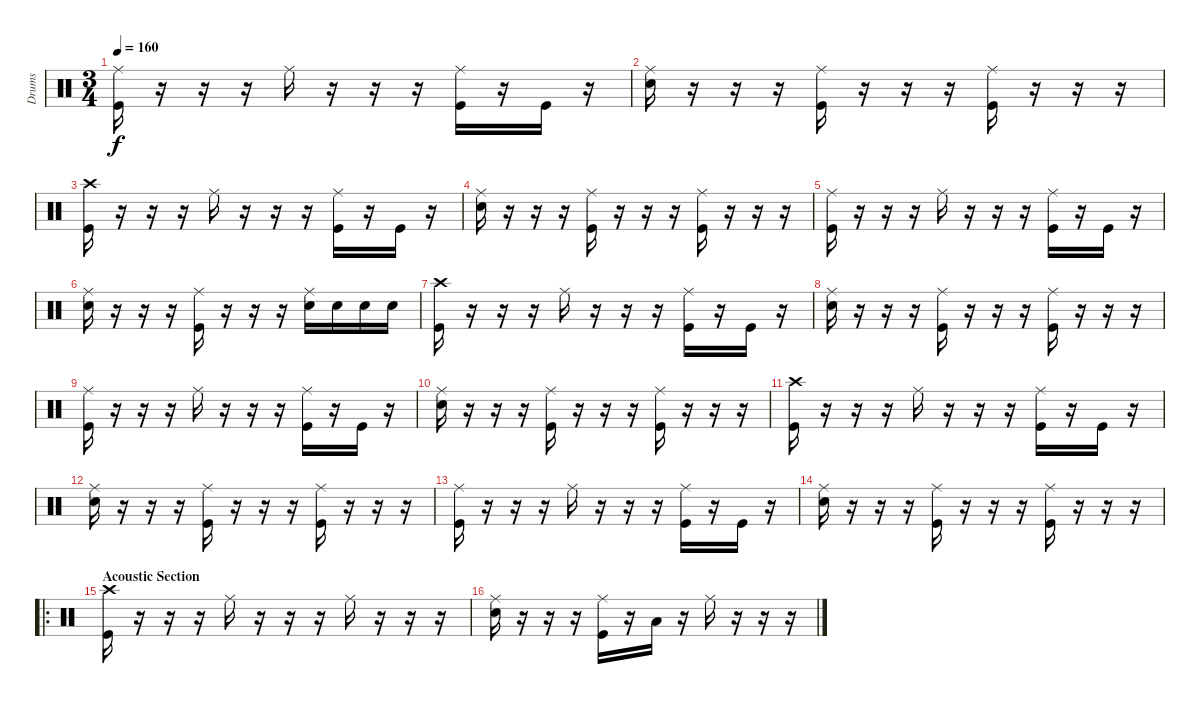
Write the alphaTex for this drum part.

\track ("Drums" "Drums") {instrument percussion}
\staff {score}
\articulation defaults
\ts (3 4)
\tempo 160
\clef neutral
\ks c
("Ride (middle)" "Kick (hit)").16{dy f} r.16 r.16 r.16 "Ride (middle)".16 r.16 r.16 r.16 ("Ride (middle)" "Kick (hit)").16 r.16 "Kick (hit)".16 r.16 |
("Ride (middle)" "Snare (hit) 2").16 r.16 r.16 r.16 ("Ride (middle)" "Kick (hit)").16 r.16 r.16 r.16 ("Ride (middle)" "Kick (hit)").16 r.16 r.16 r.16 |
("Crash high (hit)" "Kick (hit)").16 r.16 r.16 r.16 "Ride (middle)".16 r.16 r.16 r.16 ("Ride (middle)" "Kick (hit)").16 r.16 "Kick (hit)".16 r.16 |
("Ride (middle)" "Snare (hit) 2").16 r.16 r.16 r.16 ("Ride (middle)" "Kick (hit)").16 r.16 r.16 r.16 ("Ride (middle)" "Kick (hit)").16 r.16 r.16 r.16 |
("Ride (middle)" "Kick (hit)").16 r.16 r.16 r.16 "Ride (middle)".16 r.16 r.16 r.16 ("Ride (middle)" "Kick (hit)").16 r.16 "Kick (hit)".16 r.16 |
("Ride (middle)" "Snare (hit) 2").16 r.16 r.16 r.16 ("Ride (middle)" "Kick (hit)").16 r.16 r.16 r.16 ("Ride (middle)" "Snare (hit) 2").16 "Snare (hit) 2".16 "Snare (hit) 2".16 "Snare (hit) 2".16 |
("Crash high (hit)" "Kick (hit)").16 r.16 r.16 r.16 "Ride (middle)".16 r.16 r.16 r.16 ("Ride (middle)" "Kick (hit)").16 r.16 "Kick (hit)".16 r.16 |
("Ride (middle)" "Snare (hit) 2").16 r.16 r.16 r.16 ("Ride (middle)" "Kick (hit)").16 r.16 r.16 r.16 ("Ride (middle)" "Kick (hit)").16 r.16 r.16 r.16 |
("Ride (middle)" "Kick (hit)").16 r.16 r.16 r.16 "Ride (middle)".16 r.16 r.16 r.16 ("Ride (middle)" "Kick (hit)").16 r.16 "Kick (hit)".16 r.16 |
("Ride (middle)" "Snare (hit) 2").16 r.16 r.16 r.16 ("Ride (middle)" "Kick (hit)").16 r.16 r.16 r.16 ("Ride (middle)" "Kick (hit)").16 r.16 r.16 r.16 |
("Crash high (hit)" "Kick (hit)").16 r.16 r.16 r.16 "Ride (middle)".16 r.16 r.16 r.16 ("Ride (middle)" "Kick (hit)").16 r.16 "Kick (hit)".16 r.16 |
("Ride (middle)" "Snare (hit) 2").16 r.16 r.16 r.16 ("Ride (middle)" "Kick (hit)").16 r.16 r.16 r.16 ("Ride (middle)" "Kick (hit)").16 r.16 r.16 r.16 |
("Ride (middle)" "Kick (hit)").16 r.16 r.16 r.16 "Ride (middle)".16 r.16 r.16 r.16 ("Ride (middle)" "Kick (hit)").16 r.16 "Kick (hit)".16 r.16 |
("Ride (middle)" "Snare (hit) 2").16 r.16 r.16 r.16 ("Ride (middle)" "Kick (hit)").16 r.16 r.16 r.16 ("Ride (middle)" "Kick (hit)").16 r.16 r.16 r.16 |
\ro
\section ("" "Acoustic Section")
("Crash high (hit)" "Kick (hit)").16{volume 7} r.16 r.16 r.16 "Ride (middle)".16 r.16 r.16 r.16 "Ride (middle)".16 r.16 r.16 r.16 |
("Ride (middle)" "Snare (hit) 2").16 r.16 r.16 r.16 ("Ride (middle)" "Kick (hit)").16 r.16 "Low Tom (hit)".16 r.16 "Ride (middle)".16 r.16 r.16 r.16
